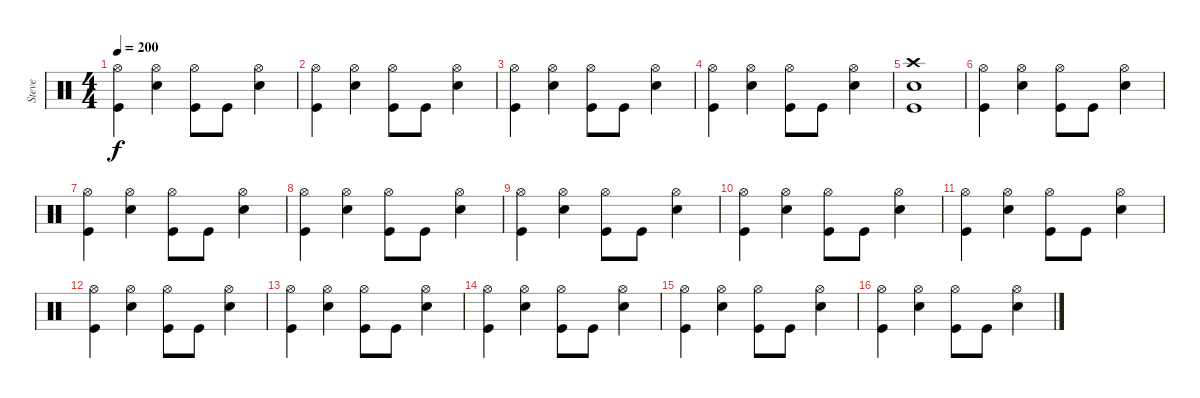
\track ("Steve" "Steve") {instrument percussion}
\staff {score}
\articulation defaults
\ts (4 4)
\tempo 200
\clef neutral
\ks c
("Hi-Hat (open)" "Kick (hit)").4{dy f} ("Hi-Hat (open)" "Snare (hit) 2").4 ("Hi-Hat (open)" "Kick (hit)").8 "Kick (hit)".8 ("Hi-Hat (open)" "Snare (hit) 2").4 |
("Hi-Hat (open)" "Kick (hit)").4 ("Hi-Hat (open)" "Snare (hit) 2").4 ("Hi-Hat (open)" "Kick (hit)").8 "Kick (hit)".8 ("Hi-Hat (open)" "Snare (hit) 2").4 |
("Hi-Hat (open)" "Kick (hit)").4 ("Hi-Hat (open)" "Snare (hit) 2").4 ("Hi-Hat (open)" "Kick (hit)").8 "Kick (hit)".8 ("Hi-Hat (open)" "Snare (hit) 2").4 |
("Hi-Hat (open)" "Kick (hit)").4 ("Hi-Hat (open)" "Snare (hit) 2").4 ("Hi-Hat (open)" "Kick (hit)").8 "Kick (hit)".8 ("Hi-Hat (open)" "Snare (hit) 2").4 |
("Crash high (hit)" "Snare (hit) 2" "Kick (hit)").1 |
("Hi-Hat (open)" "Kick (hit)").4 ("Hi-Hat (open)" "Snare (hit) 2").4 ("Hi-Hat (open)" "Kick (hit)").8 "Kick (hit)".8 ("Hi-Hat (open)" "Snare (hit) 2").4 |
("Hi-Hat (open)" "Kick (hit)").4 ("Hi-Hat (open)" "Snare (hit) 2").4 ("Hi-Hat (open)" "Kick (hit)").8 "Kick (hit)".8 ("Hi-Hat (open)" "Snare (hit) 2").4 |
("Hi-Hat (open)" "Kick (hit)").4 ("Hi-Hat (open)" "Snare (hit) 2").4 ("Hi-Hat (open)" "Kick (hit)").8 "Kick (hit)".8 ("Hi-Hat (open)" "Snare (hit) 2").4 |
("Hi-Hat (open)" "Kick (hit)").4 ("Hi-Hat (open)" "Snare (hit) 2").4 ("Hi-Hat (open)" "Kick (hit)").8 "Kick (hit)".8 ("Hi-Hat (open)" "Snare (hit) 2").4 |
("Hi-Hat (open)" "Kick (hit)").4 ("Hi-Hat (open)" "Snare (hit) 2").4 ("Hi-Hat (open)" "Kick (hit)").8 "Kick (hit)".8 ("Hi-Hat (open)" "Snare (hit) 2").4 |
("Hi-Hat (open)" "Kick (hit)").4 ("Hi-Hat (open)" "Snare (hit) 2").4 ("Hi-Hat (open)" "Kick (hit)").8 "Kick (hit)".8 ("Hi-Hat (open)" "Snare (hit) 2").4 |
("Hi-Hat (open)" "Kick (hit)").4 ("Hi-Hat (open)" "Snare (hit) 2").4 ("Hi-Hat (open)" "Kick (hit)").8 "Kick (hit)".8 ("Hi-Hat (open)" "Snare (hit) 2").4 |
("Hi-Hat (open)" "Kick (hit)").4 ("Hi-Hat (open)" "Snare (hit) 2").4 ("Hi-Hat (open)" "Kick (hit)").8 "Kick (hit)".8 ("Hi-Hat (open)" "Snare (hit) 2").4 |
("Hi-Hat (open)" "Kick (hit)").4 ("Hi-Hat (open)" "Snare (hit) 2").4 ("Hi-Hat (open)" "Kick (hit)").8 "Kick (hit)".8 ("Hi-Hat (open)" "Snare (hit) 2").4 |
("Hi-Hat (open)" "Kick (hit)").4 ("Hi-Hat (open)" "Snare (hit) 2").4 ("Hi-Hat (open)" "Kick (hit)").8 "Kick (hit)".8 ("Hi-Hat (open)" "Snare (hit) 2").4 |
("Hi-Hat (open)" "Kick (hit)").4 ("Hi-Hat (open)" "Snare (hit) 2").4 ("Hi-Hat (open)" "Kick (hit)").8 "Kick (hit)".8 ("Hi-Hat (open)" "Snare (hit) 2").4
